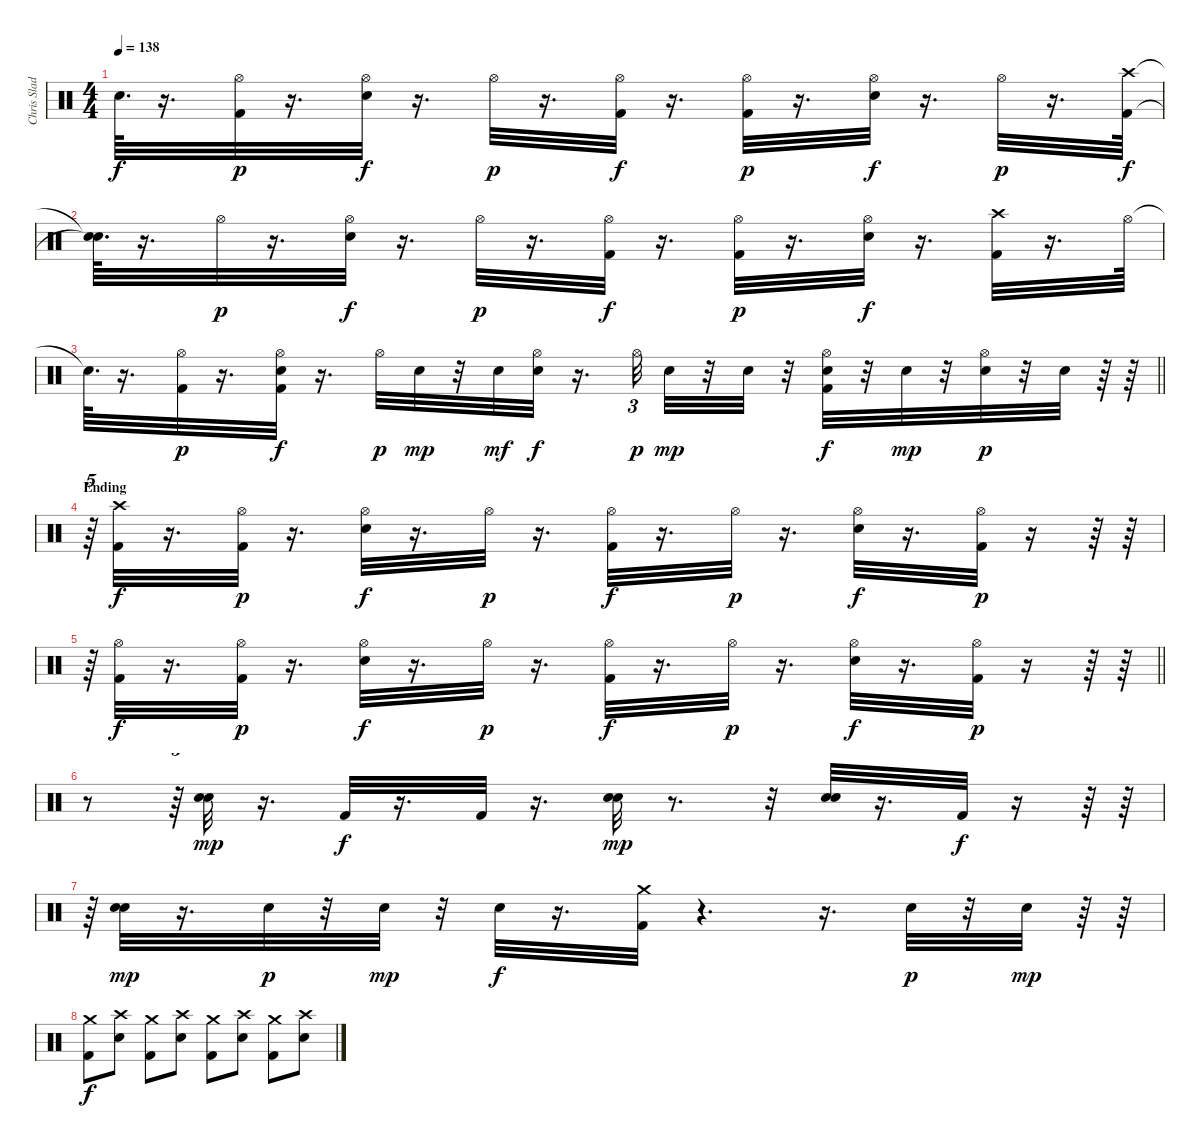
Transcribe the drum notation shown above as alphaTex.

\track ("Chris Slade" "Chris Slad") {instrument percussion}
\staff {score}
\articulation defaults
\ts (4 4)
\tempo 138
\clef neutral
\ks c "Snare (hit)"{t}.64{d dy f}
r.16{d} ("Kick (hit) 2" "Hi-Hat (open)").32{dy p} r.16{d} ("Hi-Hat (open)" "Electric Snare (hit)").32{dy f} r.16{d} "Hi-Hat (open)".32{dy p} r.16{d} ("Hi-Hat (open)" "Kick (hit) 2").32{dy f} r.16{d} ("Kick (hit) 2" "Hi-Hat (open)").32{dy p} r.16{d} ("Hi-Hat (open)" "Electric Snare (hit)").32{dy f} r.16{d} "Hi-Hat (open)".32{dy p} r.16{d} ("Crash high (hit)" "Kick (hit) 2").64{dy f} |
("Snare (hit)"{t} "Snare (hit)"{t}).64{d} r.16{d} "Hi-Hat (open)".32{dy p} r.16{d} ("Hi-Hat (open)" "Electric Snare (hit)").32{dy f} r.16{d} "Hi-Hat (open)".32{dy p} r.16{d} ("Hi-Hat (open)" "Kick (hit) 2").32{dy f} r.16{d} ("Kick (hit) 2" "Hi-Hat (open)").32{dy p} r.16{d} ("Hi-Hat (open)" "Electric Snare (hit)").32{dy f} r.16{d} ("Crash high (hit)" "Kick (hit) 2").32 r.16{d} "Hi-Hat (open)".64 |
\barLineRight lightlight "Snare (hit)"{t}.64{d}
r.16{d} ("Kick (hit) 2" "Hi-Hat (open)").32{dy p} r.16{d} ("Kick (hit) 2" "Hi-Hat (open)" "Electric Snare (hit)").32{dy f} r.16{d} "Hi-Hat (open)".32{dy p} "Electric Snare (hit)".32{dy mp} r.32 "Electric Snare (hit)".32{dy mf} ("Hi-Hat (open)" "Electric Snare (hit)").32{dy f} r.16{d} "Hi-Hat (open)".32{tu (3 2) dy p} "Electric Snare (hit)".32{dy mp} r.32 "Electric Snare (hit)".32 r.32 ("Kick (hit) 2" "Hi-Hat (open)" "Electric Snare (hit)").32{dy f} r.32 "Electric Snare (hit)".32{dy mp} r.32 ("Electric Snare (hit)" "Hi-Hat (open)").32{dy p} r.32 "Electric Snare (hit)".32 r.64 r.64 |
\section ("" "Ending")
r.64{tu (5 4)} ("Crash high (hit)" "Kick (hit) 2").32{dy f} r.16{d} ("Kick (hit) 2" "Hi-Hat (open)").32{dy p} r.16{d} ("Hi-Hat (open)" "Electric Snare (hit)").32{dy f} r.16{d} "Hi-Hat (open)".32{dy p} r.16{d} ("Hi-Hat (open)" "Kick (hit) 2").32{dy f} r.16{d} "Hi-Hat (open)".32{dy p} r.16{d} ("Hi-Hat (open)" "Electric Snare (hit)").32{dy f} r.16{d} ("Kick (hit) 2" "Hi-Hat (open)").32{dy p} r.16 r.64 r.64 |
\barLineRight lightlight
r.64{tu (5 4)} ("Hi-Hat (open)" "Kick (hit) 2").32{dy f} r.16{d} ("Kick (hit) 2" "Hi-Hat (open)").32{dy p} r.16{d} ("Hi-Hat (open)" "Electric Snare (hit)").32{dy f} r.16{d} "Hi-Hat (open)".32{dy p} r.16{d} ("Hi-Hat (open)" "Kick (hit) 2").32{dy f} r.16{d} "Hi-Hat (open)".32{dy p} r.16{d} ("Hi-Hat (open)" "Electric Snare (hit)").32{dy f} r.16{d} ("Kick (hit) 2" "Hi-Hat (open)").32{dy p} r.16 r.64 r.64 |
r.8 r.64{tu (5 4)} ("Electric Snare (hit)" "Snare (hit) 2").32{dy mp} r.16{d} "Kick (hit) 2".32{dy f} r.16{d} "Kick (hit) 2".32 r.16{d} ("Electric Snare (hit)" "Snare (hit) 2").32{dy mp} r.8{d} r.32 ("Electric Snare (hit)" "Snare (hit) 2").32 r.16{d} "Kick (hit) 2".32{dy f} r.16 r.64 r.64 |
r.64{tu (5 4)} ("Electric Snare (hit)" "Snare (hit) 2").32{dy mp} r.16{d} "Electric Snare (hit)".32{dy p} r.32 "Electric Snare (hit)".32{dy mp} r.32 "Electric Snare (hit)".32{dy f} r.16{d} ("Crash medium (hit)" "Kick (hit) 2").32 r.4{d} r.16{d} "Electric Snare (hit)".32{dy p} r.32 "Electric Snare (hit)".32{dy mp} r.64 r.64 |
("Kick (hit) 2" "Crash medium (hit)").8{dy f} ("Snare (hit) 2" "Crash high (hit)").8 ("Kick (hit) 2" "Crash medium (hit)").8 ("Snare (hit) 2" "Crash high (hit)").8 ("Kick (hit) 2" "Crash medium (hit)").8 ("Snare (hit) 2" "Crash high (hit)").8 ("Kick (hit) 2" "Crash medium (hit)").8 ("Snare (hit) 2" "Crash high (hit)").8
